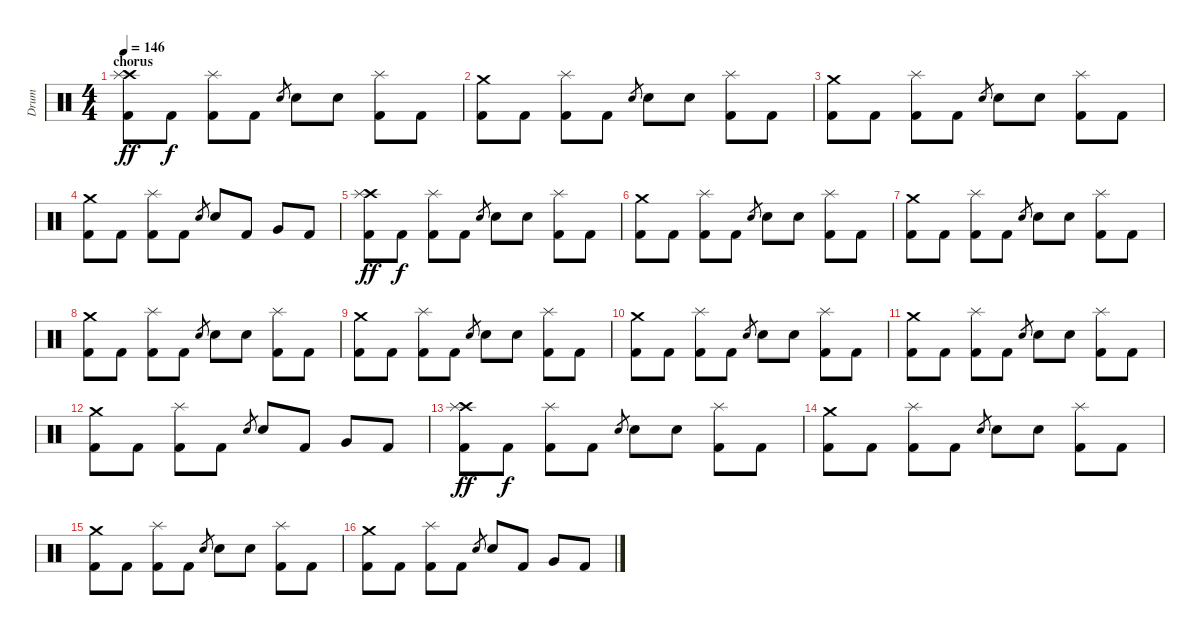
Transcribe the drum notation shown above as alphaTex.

\track ("Drum" "Drum") {instrument percussion}
\staff {score}
\articulation defaults
\ts (4 4)
\section ("" "chorus")
\tempo 146
\clef neutral
\ks c
("Crash high (hit)" "Splash (hit)" "Kick (hit) 2").8{dy ff} "Kick (hit) 2".8{dy f} ("Splash (hit)" "Kick (hit) 2").8 "Kick (hit) 2".8 "Electric Snare (hit)".8{gr} "Electric Snare (hit)".8 "Electric Snare (hit)".8 ("Splash (hit)" "Kick (hit) 2").8 "Kick (hit) 2".8 |
("Crash medium (hit)" "Kick (hit) 2").8 "Kick (hit) 2".8 ("Splash (hit)" "Kick (hit) 2").8 "Kick (hit) 2".8 "Electric Snare (hit)".8{gr} "Electric Snare (hit)".8 "Electric Snare (hit)".8 ("Splash (hit)" "Kick (hit) 2").8 "Kick (hit) 2".8 |
("Crash medium (hit)" "Kick (hit) 2").8 "Kick (hit) 2".8 ("Splash (hit)" "Kick (hit) 2").8 "Kick (hit) 2".8 "Electric Snare (hit)".8{gr} "Electric Snare (hit)".8 "Electric Snare (hit)".8 ("Splash (hit)" "Kick (hit) 2").8 "Kick (hit) 2".8 |
("Crash medium (hit)" "Kick (hit) 2").8 "Kick (hit) 2".8 ("Splash (hit)" "Kick (hit) 2").8 "Kick (hit) 2".8 "Electric Snare (hit)".8{gr} "Electric Snare (hit)".8 "Kick (hit) 2".8 "Very Low Tom (hit)".8 "Kick (hit) 2".8 |
("Crash high (hit)" "Splash (hit)" "Kick (hit) 2").8{dy ff} "Kick (hit) 2".8{dy f} ("Splash (hit)" "Kick (hit) 2").8 "Kick (hit) 2".8 "Electric Snare (hit)".8{gr} "Electric Snare (hit)".8 "Electric Snare (hit)".8 ("Splash (hit)" "Kick (hit) 2").8 "Kick (hit) 2".8 |
("Crash medium (hit)" "Kick (hit) 2").8 "Kick (hit) 2".8 ("Splash (hit)" "Kick (hit) 2").8 "Kick (hit) 2".8 "Electric Snare (hit)".8{gr} "Electric Snare (hit)".8 "Electric Snare (hit)".8 ("Splash (hit)" "Kick (hit) 2").8 "Kick (hit) 2".8 |
("Crash medium (hit)" "Kick (hit) 2").8 "Kick (hit) 2".8 ("Splash (hit)" "Kick (hit) 2").8 "Kick (hit) 2".8 "Electric Snare (hit)".8{gr} "Electric Snare (hit)".8 "Electric Snare (hit)".8 ("Splash (hit)" "Kick (hit) 2").8 "Kick (hit) 2".8 |
("Crash medium (hit)" "Kick (hit) 2").8 "Kick (hit) 2".8 ("Splash (hit)" "Kick (hit) 2").8 "Kick (hit) 2".8 "Electric Snare (hit)".8{gr} "Electric Snare (hit)".8 "Electric Snare (hit)".8 ("Splash (hit)" "Kick (hit) 2").8 "Kick (hit) 2".8 |
("Crash medium (hit)" "Kick (hit) 2").8 "Kick (hit) 2".8 ("Splash (hit)" "Kick (hit) 2").8 "Kick (hit) 2".8 "Electric Snare (hit)".8{gr} "Electric Snare (hit)".8 "Electric Snare (hit)".8 ("Splash (hit)" "Kick (hit) 2").8 "Kick (hit) 2".8 |
("Crash medium (hit)" "Kick (hit) 2").8 "Kick (hit) 2".8 ("Splash (hit)" "Kick (hit) 2").8 "Kick (hit) 2".8 "Electric Snare (hit)".8{gr} "Electric Snare (hit)".8 "Electric Snare (hit)".8 ("Splash (hit)" "Kick (hit) 2").8 "Kick (hit) 2".8 |
("Crash medium (hit)" "Kick (hit) 2").8 "Kick (hit) 2".8 ("Splash (hit)" "Kick (hit) 2").8 "Kick (hit) 2".8 "Electric Snare (hit)".8{gr} "Electric Snare (hit)".8 "Electric Snare (hit)".8 ("Splash (hit)" "Kick (hit) 2").8 "Kick (hit) 2".8 |
("Crash medium (hit)" "Kick (hit) 2").8 "Kick (hit) 2".8 ("Splash (hit)" "Kick (hit) 2").8 "Kick (hit) 2".8 "Electric Snare (hit)".8{gr} "Electric Snare (hit)".8 "Kick (hit) 2".8 "Very Low Tom (hit)".8 "Kick (hit) 2".8 |
("Crash high (hit)" "Splash (hit)" "Kick (hit) 2").8{dy ff} "Kick (hit) 2".8{dy f} ("Splash (hit)" "Kick (hit) 2").8 "Kick (hit) 2".8 "Electric Snare (hit)".8{gr} "Electric Snare (hit)".8 "Electric Snare (hit)".8 ("Splash (hit)" "Kick (hit) 2").8 "Kick (hit) 2".8 |
("Crash medium (hit)" "Kick (hit) 2").8 "Kick (hit) 2".8 ("Splash (hit)" "Kick (hit) 2").8 "Kick (hit) 2".8 "Electric Snare (hit)".8{gr} "Electric Snare (hit)".8 "Electric Snare (hit)".8 ("Splash (hit)" "Kick (hit) 2").8 "Kick (hit) 2".8 |
("Crash medium (hit)" "Kick (hit) 2").8 "Kick (hit) 2".8 ("Splash (hit)" "Kick (hit) 2").8 "Kick (hit) 2".8 "Electric Snare (hit)".8{gr} "Electric Snare (hit)".8 "Electric Snare (hit)".8 ("Splash (hit)" "Kick (hit) 2").8 "Kick (hit) 2".8 |
("Crash medium (hit)" "Kick (hit) 2").8 "Kick (hit) 2".8 ("Splash (hit)" "Kick (hit) 2").8 "Kick (hit) 2".8 "Electric Snare (hit)".8{gr} "Electric Snare (hit)".8 "Kick (hit) 2".8 "Very Low Tom (hit)".8 "Kick (hit) 2".8
